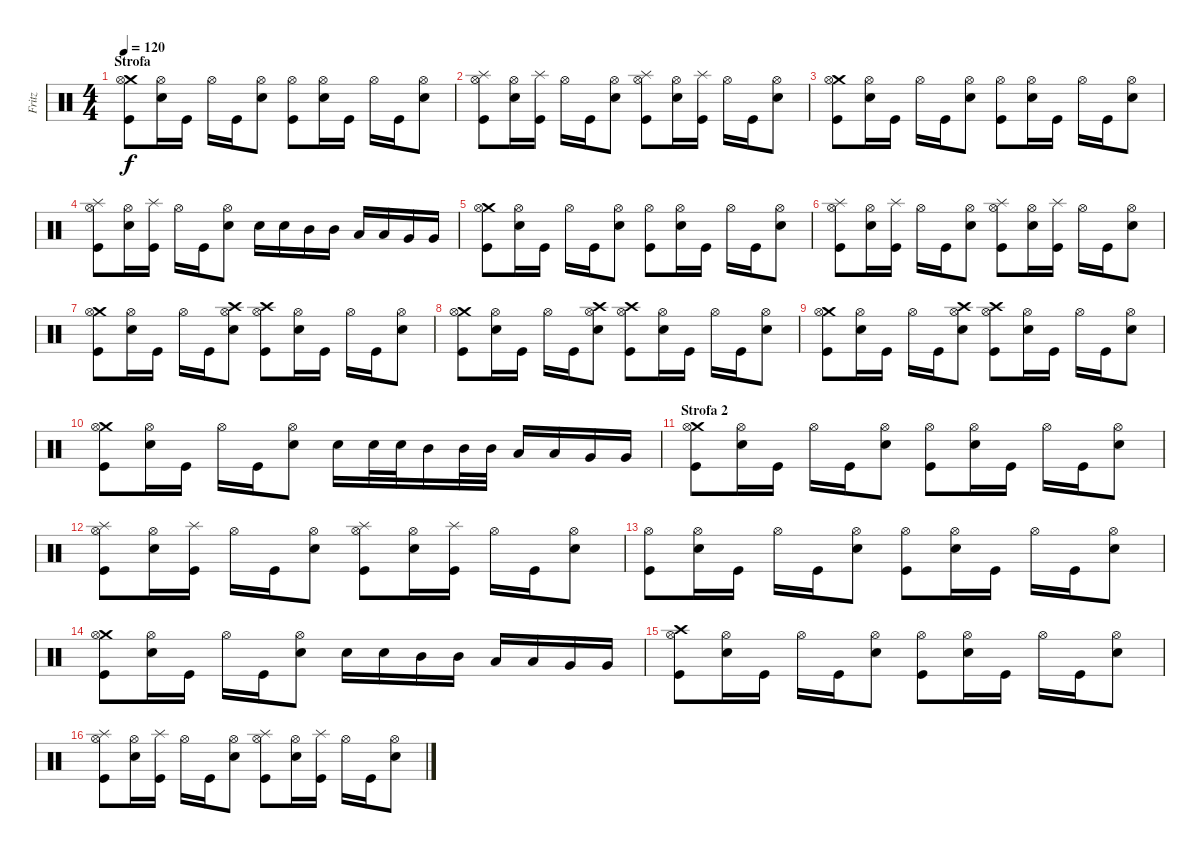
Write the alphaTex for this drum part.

\track ("Fritz" "Fritz") {instrument percussion}
\staff {score}
\articulation defaults
\ts (4 4)
\section ("" "Strofa")
\tempo 120
\clef neutral
\ks c
("Crash medium (hit)" "Hi-Hat (open)" "Kick (hit)").8{dy f} ("Hi-Hat (open)" "Snare (hit) 2").16 "Kick (hit)".16 "Hi-Hat (open)".16 "Kick (hit)".16 ("Hi-Hat (open)" "Snare (hit) 2").8 ("Hi-Hat (open)" "Kick (hit)").8 ("Hi-Hat (open)" "Snare (hit) 2").16 "Kick (hit)".16 "Hi-Hat (open)".16 "Kick (hit)".16 ("Hi-Hat (open)" "Snare (hit) 2").8 |
("Splash (hit)" "Hi-Hat (open)" "Kick (hit)").8 ("Hi-Hat (open)" "Snare (hit) 2").16 ("Splash (hit)" "Kick (hit)").16 "Hi-Hat (open)".16 "Kick (hit)".16 ("Hi-Hat (open)" "Snare (hit) 2").8 ("Splash (hit)" "Hi-Hat (open)" "Kick (hit)").8 ("Hi-Hat (open)" "Snare (hit) 2").16 ("Splash (hit)" "Kick (hit)").16 "Hi-Hat (open)".16 "Kick (hit)".16 ("Hi-Hat (open)" "Snare (hit) 2").8 |
("Crash medium (hit)" "Hi-Hat (open)" "Kick (hit)").8 ("Hi-Hat (open)" "Snare (hit) 2").16 "Kick (hit)".16 "Hi-Hat (open)".16 "Kick (hit)".16 ("Hi-Hat (open)" "Snare (hit) 2").8 ("Hi-Hat (open)" "Kick (hit)").8 ("Hi-Hat (open)" "Snare (hit) 2").16 "Kick (hit)".16 "Hi-Hat (open)".16 "Kick (hit)".16 ("Hi-Hat (open)" "Snare (hit) 2").8 |
("Splash (hit)" "Hi-Hat (open)" "Kick (hit)").8 ("Hi-Hat (open)" "Snare (hit) 2").16 ("Splash (hit)" "Kick (hit)").16 "Hi-Hat (open)".16 "Kick (hit)".16 ("Hi-Hat (open)" "Snare (hit) 2").8 "Snare (hit) 2".16 "Snare (hit) 2".16 "Mid Tom (hit)".16 "Mid Tom (hit)".16 "Low Tom (hit)".16 "Low Tom (hit)".16 "Very Low Tom (hit)".16 "Very Low Tom (hit)".16 |
("Crash medium (hit)" "Hi-Hat (open)" "Kick (hit)").8 ("Hi-Hat (open)" "Snare (hit) 2").16 "Kick (hit)".16 "Hi-Hat (open)".16 "Kick (hit)".16 ("Hi-Hat (open)" "Snare (hit) 2").8 ("Hi-Hat (open)" "Kick (hit)").8 ("Hi-Hat (open)" "Snare (hit) 2").16 "Kick (hit)".16 "Hi-Hat (open)".16 "Kick (hit)".16 ("Hi-Hat (open)" "Snare (hit) 2").8 |
("Splash (hit)" "Hi-Hat (open)" "Kick (hit)").8 ("Hi-Hat (open)" "Snare (hit) 2").16 ("Splash (hit)" "Kick (hit)").16 "Hi-Hat (open)".16 "Kick (hit)".16 ("Hi-Hat (open)" "Snare (hit) 2").8 ("Splash (hit)" "Hi-Hat (open)" "Kick (hit)").8 ("Hi-Hat (open)" "Snare (hit) 2").16 ("Splash (hit)" "Kick (hit)").16 "Hi-Hat (open)".16 "Kick (hit)".16 ("Hi-Hat (open)" "Snare (hit) 2").8 |
("Crash medium (hit)" "Hi-Hat (open)" "Kick (hit)").8 ("Hi-Hat (open)" "Snare (hit) 2").16 "Kick (hit)".16 "Hi-Hat (open)".16 "Kick (hit)".16 ("Crash high (hit)" "Hi-Hat (open)" "Snare (hit) 2").8 ("Crash high (hit)" "Hi-Hat (open)" "Kick (hit)").8 ("Hi-Hat (open)" "Snare (hit) 2").16 "Kick (hit)".16 "Hi-Hat (open)".16 "Kick (hit)".16 ("Hi-Hat (open)" "Snare (hit) 2").8 |
("Crash medium (hit)" "Hi-Hat (open)" "Kick (hit)").8 ("Hi-Hat (open)" "Snare (hit) 2").16 "Kick (hit)".16 "Hi-Hat (open)".16 "Kick (hit)".16 ("Crash high (hit)" "Hi-Hat (open)" "Snare (hit) 2").8 ("Crash high (hit)" "Hi-Hat (open)" "Kick (hit)").8 ("Hi-Hat (open)" "Snare (hit) 2").16 "Kick (hit)".16 "Hi-Hat (open)".16 "Kick (hit)".16 ("Hi-Hat (open)" "Snare (hit) 2").8 |
("Crash medium (hit)" "Hi-Hat (open)" "Kick (hit)").8 ("Hi-Hat (open)" "Snare (hit) 2").16 "Kick (hit)".16 "Hi-Hat (open)".16 "Kick (hit)".16 ("Crash high (hit)" "Hi-Hat (open)" "Snare (hit) 2").8 ("Crash high (hit)" "Hi-Hat (open)" "Kick (hit)").8 ("Hi-Hat (open)" "Snare (hit) 2").16 "Kick (hit)".16 "Hi-Hat (open)".16 "Kick (hit)".16 ("Hi-Hat (open)" "Snare (hit) 2").8 |
("Crash medium (hit)" "Hi-Hat (open)" "Kick (hit)").8 ("Hi-Hat (open)" "Snare (hit) 2").16 "Kick (hit)".16 "Hi-Hat (open)".16 "Kick (hit)".16 ("Hi-Hat (open)" "Snare (hit) 2").8 "Snare (hit) 2".16 "Snare (hit) 2".32 "Snare (hit) 2".32 "Mid Tom (hit)".16 "Mid Tom (hit)".32 "Mid Tom (hit)".32 "Low Tom (hit)".16 "Low Tom (hit)".16 "Very Low Tom (hit)".16 "Very Low Tom (hit)".16 |
\section ("" "Strofa 2")
("Crash medium (hit)" "Hi-Hat (open)" "Kick (hit)").8 ("Hi-Hat (open)" "Snare (hit) 2").16 "Kick (hit)".16 "Hi-Hat (open)".16 "Kick (hit)".16 ("Hi-Hat (open)" "Snare (hit) 2").8 ("Hi-Hat (open)" "Kick (hit)").8 ("Hi-Hat (open)" "Snare (hit) 2").16 "Kick (hit)".16 "Hi-Hat (open)".16 "Kick (hit)".16 ("Hi-Hat (open)" "Snare (hit) 2").8 |
("Splash (hit)" "Hi-Hat (open)" "Kick (hit)").8 ("Hi-Hat (open)" "Snare (hit) 2").16 ("Splash (hit)" "Kick (hit)").16 "Hi-Hat (open)".16 "Kick (hit)".16 ("Hi-Hat (open)" "Snare (hit) 2").8 ("Splash (hit)" "Hi-Hat (open)" "Kick (hit)").8 ("Hi-Hat (open)" "Snare (hit) 2").16 ("Splash (hit)" "Kick (hit)").16 "Hi-Hat (open)".16 "Kick (hit)".16 ("Hi-Hat (open)" "Snare (hit) 2").8 |
("Hi-Hat (open)" "Kick (hit)").8 ("Hi-Hat (open)" "Snare (hit) 2").16 "Kick (hit)".16 "Hi-Hat (open)".16 "Kick (hit)".16 ("Hi-Hat (open)" "Snare (hit) 2").8 ("Hi-Hat (open)" "Kick (hit)").8 ("Hi-Hat (open)" "Snare (hit) 2").16 "Kick (hit)".16 "Hi-Hat (open)".16 "Kick (hit)".16 ("Hi-Hat (open)" "Snare (hit) 2").8 |
("Crash medium (hit)" "Hi-Hat (open)" "Kick (hit)").8 ("Hi-Hat (open)" "Snare (hit) 2").16 "Kick (hit)".16 "Hi-Hat (open)".16 "Kick (hit)".16 ("Hi-Hat (open)" "Snare (hit) 2").8 "Snare (hit) 2".16 "Snare (hit) 2".16 "Mid Tom (hit)".16 "Mid Tom (hit)".16 "Low Tom (hit)".16 "Low Tom (hit)".16 "Very Low Tom (hit)".16 "Very Low Tom (hit)".16 |
("Crash high (hit)" "Hi-Hat (open)" "Kick (hit)").8 ("Hi-Hat (open)" "Snare (hit) 2").16 "Kick (hit)".16 "Hi-Hat (open)".16 "Kick (hit)".16 ("Hi-Hat (open)" "Snare (hit) 2").8 ("Hi-Hat (open)" "Kick (hit)").8 ("Hi-Hat (open)" "Snare (hit) 2").16 "Kick (hit)".16 "Hi-Hat (open)".16 "Kick (hit)".16 ("Hi-Hat (open)" "Snare (hit) 2").8 |
("Splash (hit)" "Hi-Hat (open)" "Kick (hit)").8 ("Hi-Hat (open)" "Snare (hit) 2").16 ("Splash (hit)" "Kick (hit)").16 "Hi-Hat (open)".16 "Kick (hit)".16 ("Hi-Hat (open)" "Snare (hit) 2").8 ("Splash (hit)" "Hi-Hat (open)" "Kick (hit)").8 ("Hi-Hat (open)" "Snare (hit) 2").16 ("Splash (hit)" "Kick (hit)").16 "Hi-Hat (open)".16 "Kick (hit)".16 ("Hi-Hat (open)" "Snare (hit) 2").8
